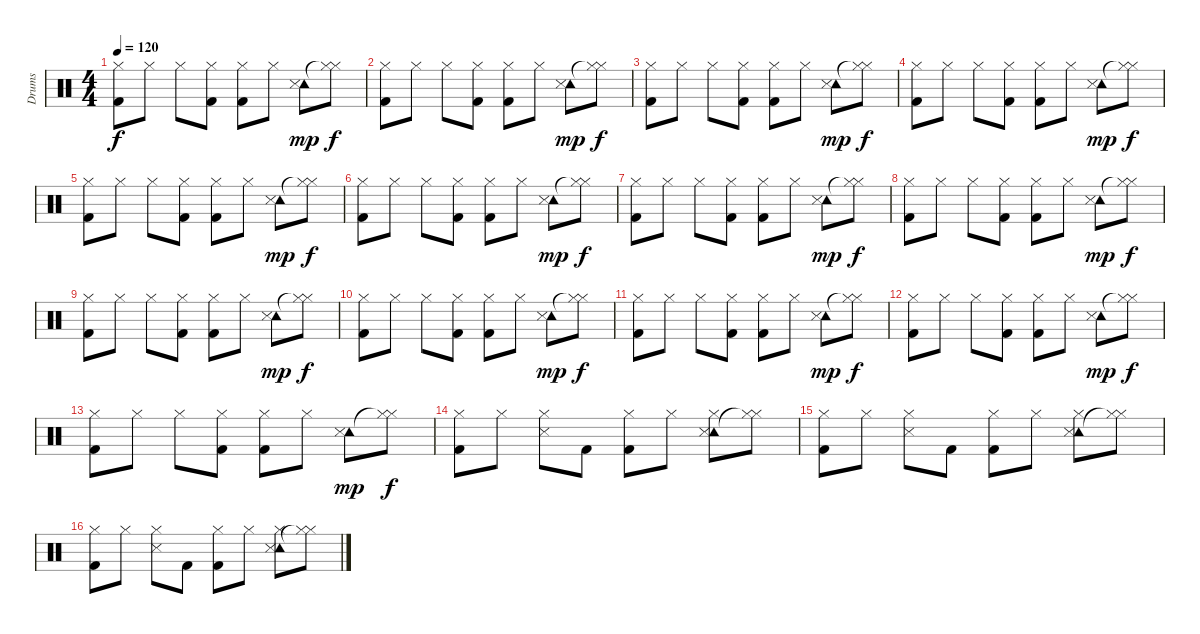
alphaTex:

\track ("Drums" "Drums") {instrument percussion}
\staff {score}
\articulation defaults
\ts (4 4)
\tempo 120
\clef neutral
\ks c
("Hi-Hat (closed)" "Kick (hit) 2").8{dy f} "Hi-Hat (closed)".8 "Hi-Hat (closed)".8 ("Hi-Hat (closed)" "Kick (hit) 2").8 ("Hi-Hat (closed)" "Kick (hit) 2").8 "Hi-Hat (closed)".8 ("Tambourine (hit)" "Snare (side stick) 3").8{dy mp} ("Hi-Hat (closed)"{t} "Hi-Hat (closed)").8{dy f} |
("Hi-Hat (closed)" "Kick (hit) 2").8 "Hi-Hat (closed)".8 "Hi-Hat (closed)".8 ("Hi-Hat (closed)" "Kick (hit) 2").8 ("Hi-Hat (closed)" "Kick (hit) 2").8 "Hi-Hat (closed)".8 ("Tambourine (hit)" "Snare (side stick) 3").8{dy mp} ("Hi-Hat (closed)"{t} "Hi-Hat (closed)").8{dy f} |
("Hi-Hat (closed)" "Kick (hit) 2").8 "Hi-Hat (closed)".8 "Hi-Hat (closed)".8 ("Hi-Hat (closed)" "Kick (hit) 2").8 ("Hi-Hat (closed)" "Kick (hit) 2").8 "Hi-Hat (closed)".8 ("Tambourine (hit)" "Snare (side stick) 3").8{dy mp} ("Hi-Hat (closed)"{t} "Hi-Hat (closed)").8{dy f} |
("Hi-Hat (closed)" "Kick (hit) 2").8 "Hi-Hat (closed)".8 "Hi-Hat (closed)".8 ("Hi-Hat (closed)" "Kick (hit) 2").8 ("Hi-Hat (closed)" "Kick (hit) 2").8 "Hi-Hat (closed)".8 ("Tambourine (hit)" "Snare (side stick) 3").8{dy mp} ("Hi-Hat (closed)"{t} "Hi-Hat (closed)").8{dy f} |
("Hi-Hat (closed)" "Kick (hit) 2").8 "Hi-Hat (closed)".8 "Hi-Hat (closed)".8 ("Hi-Hat (closed)" "Kick (hit) 2").8 ("Hi-Hat (closed)" "Kick (hit) 2").8 "Hi-Hat (closed)".8 ("Tambourine (hit)" "Snare (side stick) 3").8{dy mp} ("Hi-Hat (closed)"{t} "Hi-Hat (closed)").8{dy f} |
("Hi-Hat (closed)" "Kick (hit) 2").8 "Hi-Hat (closed)".8 "Hi-Hat (closed)".8 ("Hi-Hat (closed)" "Kick (hit) 2").8 ("Hi-Hat (closed)" "Kick (hit) 2").8 "Hi-Hat (closed)".8 ("Tambourine (hit)" "Snare (side stick) 3").8{dy mp} ("Hi-Hat (closed)"{t} "Hi-Hat (closed)").8{dy f} |
("Hi-Hat (closed)" "Kick (hit) 2").8 "Hi-Hat (closed)".8 "Hi-Hat (closed)".8 ("Hi-Hat (closed)" "Kick (hit) 2").8 ("Hi-Hat (closed)" "Kick (hit) 2").8 "Hi-Hat (closed)".8 ("Tambourine (hit)" "Snare (side stick) 3").8{dy mp} ("Hi-Hat (closed)"{t} "Hi-Hat (closed)").8{dy f} |
("Hi-Hat (closed)" "Kick (hit) 2").8 "Hi-Hat (closed)".8 "Hi-Hat (closed)".8 ("Hi-Hat (closed)" "Kick (hit) 2").8 ("Hi-Hat (closed)" "Kick (hit) 2").8 "Hi-Hat (closed)".8 ("Tambourine (hit)" "Snare (side stick) 3").8{dy mp} ("Hi-Hat (closed)"{t} "Hi-Hat (closed)").8{dy f} |
("Hi-Hat (closed)" "Kick (hit) 2").8 "Hi-Hat (closed)".8 "Hi-Hat (closed)".8 ("Hi-Hat (closed)" "Kick (hit) 2").8 ("Hi-Hat (closed)" "Kick (hit) 2").8 "Hi-Hat (closed)".8 ("Tambourine (hit)" "Snare (side stick) 3").8{dy mp} ("Hi-Hat (closed)"{t} "Hi-Hat (closed)").8{dy f} |
("Hi-Hat (closed)" "Kick (hit) 2").8 "Hi-Hat (closed)".8 "Hi-Hat (closed)".8 ("Hi-Hat (closed)" "Kick (hit) 2").8 ("Hi-Hat (closed)" "Kick (hit) 2").8 "Hi-Hat (closed)".8 ("Tambourine (hit)" "Snare (side stick) 3").8{dy mp} ("Hi-Hat (closed)"{t} "Hi-Hat (closed)").8{dy f} |
("Hi-Hat (closed)" "Kick (hit) 2").8 "Hi-Hat (closed)".8 "Hi-Hat (closed)".8 ("Hi-Hat (closed)" "Kick (hit) 2").8 ("Hi-Hat (closed)" "Kick (hit) 2").8 "Hi-Hat (closed)".8 ("Tambourine (hit)" "Snare (side stick) 3").8{dy mp} ("Hi-Hat (closed)"{t} "Hi-Hat (closed)").8{dy f} |
("Hi-Hat (closed)" "Kick (hit) 2").8 "Hi-Hat (closed)".8 "Hi-Hat (closed)".8 ("Hi-Hat (closed)" "Kick (hit) 2").8 ("Hi-Hat (closed)" "Kick (hit) 2").8 "Hi-Hat (closed)".8 ("Tambourine (hit)" "Snare (side stick) 3").8{dy mp} ("Hi-Hat (closed)"{t} "Hi-Hat (closed)").8{dy f} |
("Hi-Hat (closed)" "Kick (hit) 2").8 "Hi-Hat (closed)".8 "Hi-Hat (closed)".8 ("Hi-Hat (closed)" "Kick (hit) 2").8 ("Hi-Hat (closed)" "Kick (hit) 2").8 "Hi-Hat (closed)".8 ("Tambourine (hit)" "Snare (side stick) 3").8{dy mp} ("Hi-Hat (closed)"{t} "Hi-Hat (closed)").8{dy f} |
("Hi-Hat (closed)" "Kick (hit) 2").8 "Hi-Hat (closed)".8 ("Hi-Hat (closed)" "Snare (side stick) 3").8 "Kick (hit) 2".8 ("Hi-Hat (closed)" "Kick (hit) 2").8 "Hi-Hat (closed)".8 ("Tambourine (hit)" "Hi-Hat (closed)" "Snare (side stick) 3").8 ("Hi-Hat (closed)"{t} "Hi-Hat (closed)").8 |
("Hi-Hat (closed)" "Kick (hit) 2").8 "Hi-Hat (closed)".8 ("Hi-Hat (closed)" "Snare (side stick) 3").8 "Kick (hit) 2".8 ("Hi-Hat (closed)" "Kick (hit) 2").8 "Hi-Hat (closed)".8 ("Tambourine (hit)" "Hi-Hat (closed)" "Snare (side stick) 3").8 ("Hi-Hat (closed)"{t} "Hi-Hat (closed)").8 |
("Hi-Hat (closed)" "Kick (hit) 2").8 "Hi-Hat (closed)".8 ("Hi-Hat (closed)" "Snare (side stick) 3").8 "Kick (hit) 2".8 ("Hi-Hat (closed)" "Kick (hit) 2").8 "Hi-Hat (closed)".8 ("Tambourine (hit)" "Hi-Hat (closed)" "Snare (side stick) 3").8 ("Hi-Hat (closed)"{t} "Hi-Hat (closed)").8
